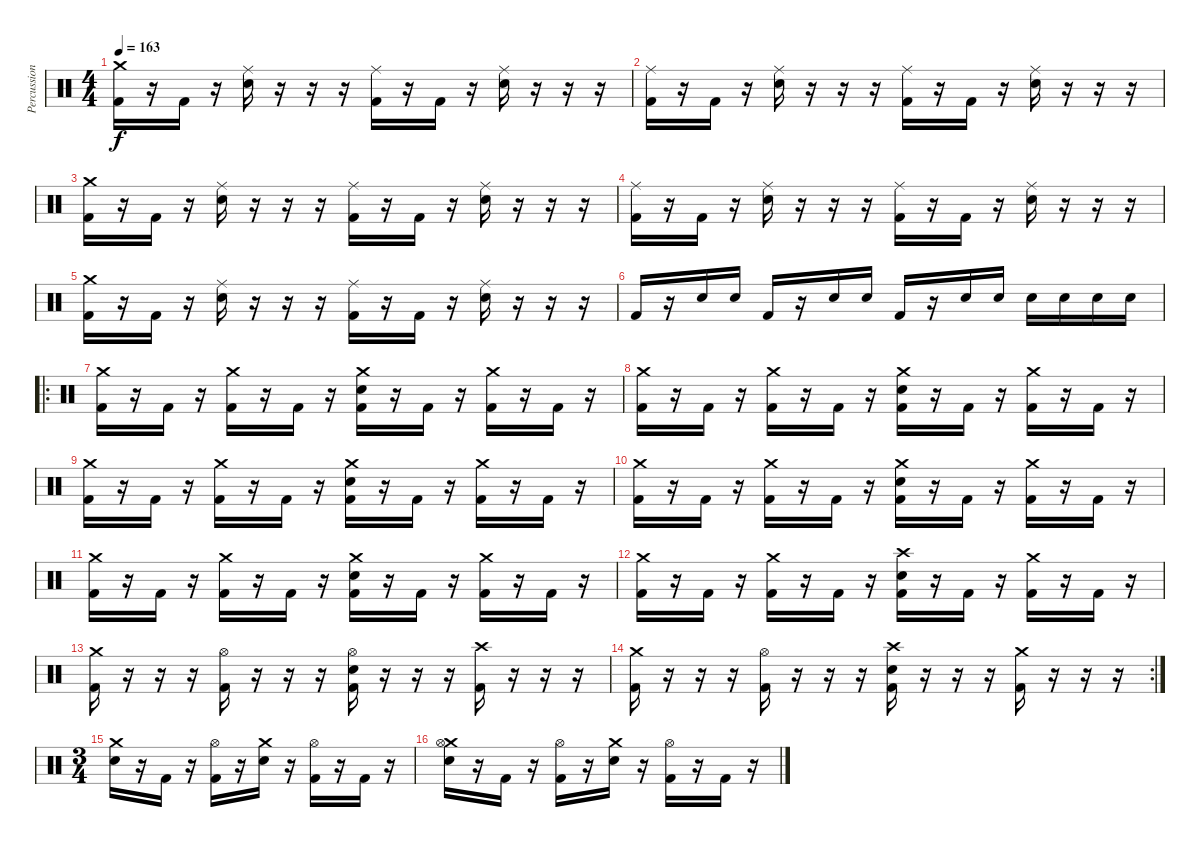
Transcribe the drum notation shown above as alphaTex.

\track ("Percussion" "Percussion") {instrument percussion}
\staff {score}
\articulation defaults
\ts (4 4)
\tempo 163
\clef neutral
\ks c
("Crash medium (hit)" "Kick (hit) 2").16{dy f} r.16 "Kick (hit) 2".16 r.16 ("Ride (middle)" "Snare (hit) 2").16 r.16 r.16 r.16 ("Ride (middle)" "Kick (hit) 2").16 r.16 "Kick (hit) 2".16 r.16 ("Ride (middle)" "Snare (hit) 2").16 r.16 r.16 r.16 |
("Ride (middle)" "Kick (hit) 2").16 r.16 "Kick (hit) 2".16 r.16 ("Ride (middle)" "Snare (hit) 2").16 r.16 r.16 r.16 ("Ride (middle)" "Kick (hit) 2").16 r.16 "Kick (hit) 2".16 r.16 ("Ride (middle)" "Snare (hit) 2").16 r.16 r.16 r.16 |
("Crash medium (hit)" "Kick (hit) 2").16 r.16 "Kick (hit) 2".16 r.16 ("Ride (middle)" "Snare (hit) 2").16 r.16 r.16 r.16 ("Ride (middle)" "Kick (hit) 2").16 r.16 "Kick (hit) 2".16 r.16 ("Ride (middle)" "Snare (hit) 2").16 r.16 r.16 r.16 |
("Ride (middle)" "Kick (hit) 2").16 r.16 "Kick (hit) 2".16 r.16 ("Ride (middle)" "Snare (hit) 2").16 r.16 r.16 r.16 ("Ride (middle)" "Kick (hit) 2").16 r.16 "Kick (hit) 2".16 r.16 ("Ride (middle)" "Snare (hit) 2").16 r.16 r.16 r.16 |
("Crash medium (hit)" "Kick (hit) 2").16 r.16 "Kick (hit) 2".16 r.16 ("Ride (middle)" "Snare (hit) 2").16 r.16 r.16 r.16 ("Ride (middle)" "Kick (hit) 2").16 r.16 "Kick (hit) 2".16 r.16 ("Ride (middle)" "Snare (hit) 2").16 r.16 r.16 r.16 |
"Kick (hit) 2".16 r.16 "Snare (hit) 2".16 "Snare (hit) 2".16 "Kick (hit) 2".16 r.16 "Snare (hit) 2".16 "Snare (hit) 2".16 "Kick (hit) 2".16 r.16 "Snare (hit) 2".16 "Snare (hit) 2".16 "Snare (hit) 2".16 "Snare (hit) 2".16 "Snare (hit) 2".16 "Snare (hit) 2".16 |
\ro
("Crash medium (hit)" "Kick (hit) 2").16 r.16 "Kick (hit) 2".16 r.16 ("Crash medium (hit)" "Kick (hit) 2").16 r.16 "Kick (hit) 2".16 r.16 ("Crash medium (hit)" "Snare (hit) 2" "Kick (hit) 2").16 r.16 "Kick (hit) 2".16 r.16 ("Crash medium (hit)" "Kick (hit) 2").16 r.16 "Kick (hit) 2".16 r.16 |
("Crash medium (hit)" "Kick (hit) 2").16 r.16 "Kick (hit) 2".16 r.16 ("Crash medium (hit)" "Kick (hit) 2").16 r.16 "Kick (hit) 2".16 r.16 ("Crash medium (hit)" "Snare (hit) 2" "Kick (hit) 2").16 r.16 "Kick (hit) 2".16 r.16 ("Crash medium (hit)" "Kick (hit) 2").16 r.16 "Kick (hit) 2".16 r.16 |
("Crash medium (hit)" "Kick (hit) 2").16 r.16 "Kick (hit) 2".16 r.16 ("Crash medium (hit)" "Kick (hit) 2").16 r.16 "Kick (hit) 2".16 r.16 ("Crash medium (hit)" "Snare (hit) 2" "Kick (hit) 2").16 r.16 "Kick (hit) 2".16 r.16 ("Crash medium (hit)" "Kick (hit) 2").16 r.16 "Kick (hit) 2".16 r.16 |
("Crash medium (hit)" "Kick (hit) 2").16 r.16 "Kick (hit) 2".16 r.16 ("Crash medium (hit)" "Kick (hit) 2").16 r.16 "Kick (hit) 2".16 r.16 ("Crash medium (hit)" "Snare (hit) 2" "Kick (hit) 2").16 r.16 "Kick (hit) 2".16 r.16 ("Crash medium (hit)" "Kick (hit) 2").16 r.16 "Kick (hit) 2".16 r.16 |
("Crash medium (hit)" "Kick (hit) 2").16 r.16 "Kick (hit) 2".16 r.16 ("Crash medium (hit)" "Kick (hit) 2").16 r.16 "Kick (hit) 2".16 r.16 ("Crash medium (hit)" "Snare (hit) 2" "Kick (hit) 2").16 r.16 "Kick (hit) 2".16 r.16 ("Crash medium (hit)" "Kick (hit) 2").16 r.16 "Kick (hit) 2".16 r.16 |
("Crash medium (hit)" "Kick (hit) 2").16 r.16 "Kick (hit) 2".16 r.16 ("Crash medium (hit)" "Kick (hit) 2").16 r.16 "Kick (hit) 2".16 r.16 ("Crash high (hit)" "Snare (hit) 2" "Kick (hit) 2").16 r.16 "Kick (hit) 2".16 r.16 ("Crash medium (hit)" "Kick (hit) 2").16 r.16 "Kick (hit) 2".16 r.16 |
("Crash medium (hit)" "Kick (hit) 2").16 r.16 r.16 r.16 ("Hi-Hat (open)" "Kick (hit) 2").16 r.16 r.16 r.16 ("Hi-Hat (open)" "Snare (hit) 2" "Kick (hit) 2").16 r.16 r.16 r.16 ("Crash high (hit)" "Kick (hit) 2").16 r.16 r.16 r.16 |
\rc 2
("Crash medium (hit)" "Kick (hit) 2").16 r.16 r.16 r.16 ("Hi-Hat (open)" "Kick (hit) 2").16 r.16 r.16 r.16 ("Crash high (hit)" "Snare (hit) 2" "Kick (hit) 2").16 r.16 r.16 r.16 ("Crash medium (hit)" "Kick (hit) 2").16 r.16 r.16 r.16 |
\ts (3 4)
("Crash medium (hit)" "Snare (hit) 2").16 r.16 "Kick (hit) 2".16 r.16 ("Hi-Hat (open)" "Kick (hit) 2").16 r.16 ("Crash medium (hit)" "Snare (hit) 2").16 r.16 ("Hi-Hat (open)" "Kick (hit) 2").16 r.16 "Kick (hit) 2".16 r.16 |
("Crash medium (hit)" "Hi-Hat (open)" "Snare (hit) 2").16 r.16 "Kick (hit) 2".16 r.16 ("Hi-Hat (open)" "Kick (hit) 2").16 r.16 ("Crash medium (hit)" "Snare (hit) 2").16 r.16 ("Hi-Hat (open)" "Kick (hit) 2").16 r.16 "Kick (hit) 2".16 r.16
